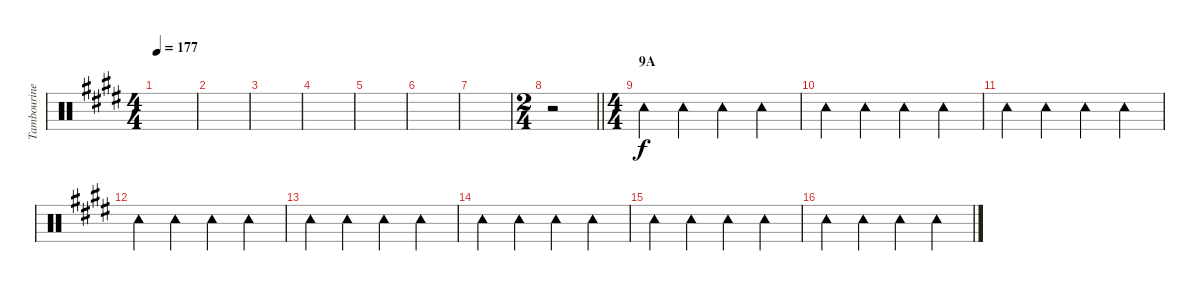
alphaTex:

\track ("Tambourine" "Tambourine") {instrument percussion}
\staff {score}
\articulation defaults
\ts (4 4)
\tempo 177
\clef neutral
\ks e
|
|
|
|
|
|
|
\ts (2 4)
\barLineRight lightlight
r.2 |
\ts (4 4)
\section ("" "9A")
"Tambourine (hit)".4 "Tambourine (hit)".4 "Tambourine (hit)".4 "Tambourine (hit)".4 |
"Tambourine (hit)".4 "Tambourine (hit)".4 "Tambourine (hit)".4 "Tambourine (hit)".4 |
"Tambourine (hit)".4 "Tambourine (hit)".4 "Tambourine (hit)".4 "Tambourine (hit)".4 |
"Tambourine (hit)".4 "Tambourine (hit)".4 "Tambourine (hit)".4 "Tambourine (hit)".4 |
"Tambourine (hit)".4 "Tambourine (hit)".4 "Tambourine (hit)".4 "Tambourine (hit)".4 |
"Tambourine (hit)".4 "Tambourine (hit)".4 "Tambourine (hit)".4 "Tambourine (hit)".4 |
"Tambourine (hit)".4 "Tambourine (hit)".4 "Tambourine (hit)".4 "Tambourine (hit)".4 |
"Tambourine (hit)".4 "Tambourine (hit)".4 "Tambourine (hit)".4 "Tambourine (hit)".4
